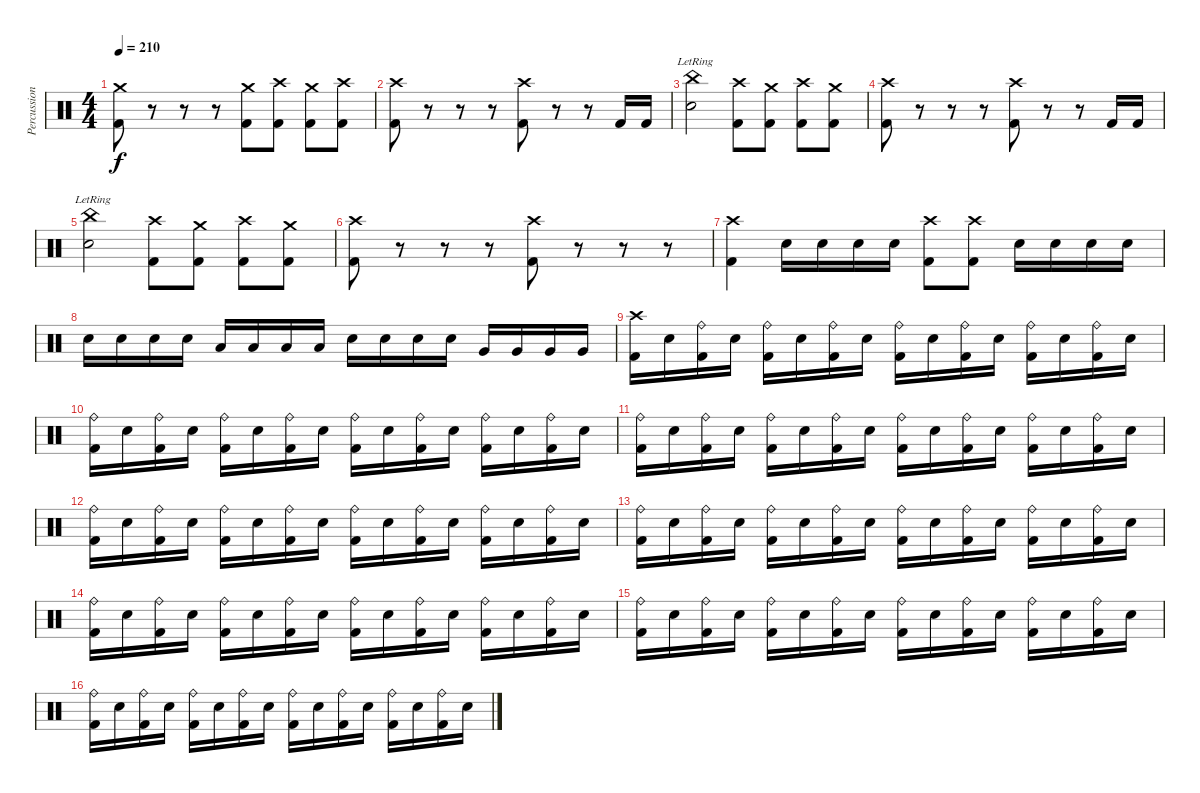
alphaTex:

\track ("Percussion" "Percussion") {instrument percussion}
\staff {score}
\articulation defaults
\ts (4 4)
\tempo 210
\clef neutral
\ks c
("Crash medium (hit)" "Kick (hit) 2").8{dy f} r.8 r.8 r.8 ("Crash medium (hit)" "Kick (hit) 2").8 ("Crash high (hit)" "Kick (hit) 2").8 ("Crash medium (hit)" "Kick (hit) 2").8 ("Crash high (hit)" "Kick (hit) 2").8 |
("Crash high (hit)" "Kick (hit) 2").8 r.8 r.8 r.8 ("Crash high (hit)" "Kick (hit) 2").8 r.8 r.8 "Kick (hit) 2".16 "Kick (hit) 2".16 |
("China (hit)"{lr} "Electric Snare (hit)").2 ("Crash high (hit)" "Kick (hit) 2").8 ("Crash medium (hit)" "Kick (hit) 2").8 ("Crash high (hit)" "Kick (hit) 2").8 ("Crash medium (hit)" "Kick (hit) 2").8 |
("Crash high (hit)" "Kick (hit) 2").8 r.8 r.8 r.8 ("Crash high (hit)" "Kick (hit) 2").8 r.8 r.8 "Kick (hit) 2".16 "Kick (hit) 2".16 |
("China (hit)"{lr} "Electric Snare (hit)").2 ("Crash high (hit)" "Kick (hit) 2").8 ("Crash medium (hit)" "Kick (hit) 2").8 ("Crash high (hit)" "Kick (hit) 2").8 ("Crash medium (hit)" "Kick (hit) 2").8 |
("Crash high (hit)" "Kick (hit) 2").8 r.8 r.8 r.8 ("Crash high (hit)" "Kick (hit) 2").8 r.8 r.8 r.8 |
("Crash high (hit)" "Kick (hit) 2").4 "Electric Snare (hit)".16 "Electric Snare (hit)".16 "Electric Snare (hit)".16 "Electric Snare (hit)".16 ("Crash high (hit)" "Kick (hit) 2").8 ("Crash high (hit)" "Kick (hit) 2").8 "Electric Snare (hit)".16 "Electric Snare (hit)".16 "Electric Snare (hit)".16 "Electric Snare (hit)".16 |
"Electric Snare (hit)".16 "Electric Snare (hit)".16 "Electric Snare (hit)".16 "Electric Snare (hit)".16 "Low Tom (hit)".16 "Low Tom (hit)".16 "Low Tom (hit)".16 "Low Tom (hit)".16 "Electric Snare (hit)".16 "Electric Snare (hit)".16 "Electric Snare (hit)".16 "Electric Snare (hit)".16 "Very Low Tom (hit)".16 "Very Low Tom (hit)".16 "Very Low Tom (hit)".16 "Very Low Tom (hit)".16 |
("Crash high (hit)" "Kick (hit) 2").16 "Electric Snare (hit)".16 ("Ride (bell)" "Kick (hit) 2").16 "Electric Snare (hit)".16 ("Ride (bell)" "Kick (hit) 2").16 "Electric Snare (hit)".16 ("Ride (bell)" "Kick (hit) 2").16 "Electric Snare (hit)".16 ("Ride (bell)" "Kick (hit) 2").16 "Electric Snare (hit)".16 ("Ride (bell)" "Kick (hit) 2").16 "Electric Snare (hit)".16 ("Ride (bell)" "Kick (hit) 2").16 "Electric Snare (hit)".16 ("Ride (bell)" "Kick (hit) 2").16 "Electric Snare (hit)".16 |
("Ride (bell)" "Kick (hit) 2").16 "Electric Snare (hit)".16 ("Ride (bell)" "Kick (hit) 2").16 "Electric Snare (hit)".16 ("Ride (bell)" "Kick (hit) 2").16 "Electric Snare (hit)".16 ("Ride (bell)" "Kick (hit) 2").16 "Electric Snare (hit)".16 ("Ride (bell)" "Kick (hit) 2").16 "Electric Snare (hit)".16 ("Ride (bell)" "Kick (hit) 2").16 "Electric Snare (hit)".16 ("Ride (bell)" "Kick (hit) 2").16 "Electric Snare (hit)".16 ("Ride (bell)" "Kick (hit) 2").16 "Electric Snare (hit)".16 |
("Ride (bell)" "Kick (hit) 2").16 "Electric Snare (hit)".16 ("Ride (bell)" "Kick (hit) 2").16 "Electric Snare (hit)".16 ("Ride (bell)" "Kick (hit) 2").16 "Electric Snare (hit)".16 ("Ride (bell)" "Kick (hit) 2").16 "Electric Snare (hit)".16 ("Ride (bell)" "Kick (hit) 2").16 "Electric Snare (hit)".16 ("Ride (bell)" "Kick (hit) 2").16 "Electric Snare (hit)".16 ("Ride (bell)" "Kick (hit) 2").16 "Electric Snare (hit)".16 ("Ride (bell)" "Kick (hit) 2").16 "Electric Snare (hit)".16 |
("Ride (bell)" "Kick (hit) 2").16 "Electric Snare (hit)".16 ("Ride (bell)" "Kick (hit) 2").16 "Electric Snare (hit)".16 ("Ride (bell)" "Kick (hit) 2").16 "Electric Snare (hit)".16 ("Ride (bell)" "Kick (hit) 2").16 "Electric Snare (hit)".16 ("Ride (bell)" "Kick (hit) 2").16 "Electric Snare (hit)".16 ("Ride (bell)" "Kick (hit) 2").16 "Electric Snare (hit)".16 ("Ride (bell)" "Kick (hit) 2").16 "Electric Snare (hit)".16 ("Ride (bell)" "Kick (hit) 2").16 "Electric Snare (hit)".16 |
("Ride (bell)" "Kick (hit) 2").16 "Electric Snare (hit)".16 ("Ride (bell)" "Kick (hit) 2").16 "Electric Snare (hit)".16 ("Ride (bell)" "Kick (hit) 2").16 "Electric Snare (hit)".16 ("Ride (bell)" "Kick (hit) 2").16 "Electric Snare (hit)".16 ("Ride (bell)" "Kick (hit) 2").16 "Electric Snare (hit)".16 ("Ride (bell)" "Kick (hit) 2").16 "Electric Snare (hit)".16 ("Ride (bell)" "Kick (hit) 2").16 "Electric Snare (hit)".16 ("Ride (bell)" "Kick (hit) 2").16 "Electric Snare (hit)".16 |
("Ride (bell)" "Kick (hit) 2").16 "Electric Snare (hit)".16 ("Ride (bell)" "Kick (hit) 2").16 "Electric Snare (hit)".16 ("Ride (bell)" "Kick (hit) 2").16 "Electric Snare (hit)".16 ("Ride (bell)" "Kick (hit) 2").16 "Electric Snare (hit)".16 ("Ride (bell)" "Kick (hit) 2").16 "Electric Snare (hit)".16 ("Ride (bell)" "Kick (hit) 2").16 "Electric Snare (hit)".16 ("Ride (bell)" "Kick (hit) 2").16 "Electric Snare (hit)".16 ("Ride (bell)" "Kick (hit) 2").16 "Electric Snare (hit)".16 |
("Ride (bell)" "Kick (hit) 2").16 "Electric Snare (hit)".16 ("Ride (bell)" "Kick (hit) 2").16 "Electric Snare (hit)".16 ("Ride (bell)" "Kick (hit) 2").16 "Electric Snare (hit)".16 ("Ride (bell)" "Kick (hit) 2").16 "Electric Snare (hit)".16 ("Ride (bell)" "Kick (hit) 2").16 "Electric Snare (hit)".16 ("Ride (bell)" "Kick (hit) 2").16 "Electric Snare (hit)".16 ("Ride (bell)" "Kick (hit) 2").16 "Electric Snare (hit)".16 ("Ride (bell)" "Kick (hit) 2").16 "Electric Snare (hit)".16 |
("Ride (bell)" "Kick (hit) 2").16 "Electric Snare (hit)".16 ("Ride (bell)" "Kick (hit) 2").16 "Electric Snare (hit)".16 ("Ride (bell)" "Kick (hit) 2").16 "Electric Snare (hit)".16 ("Ride (bell)" "Kick (hit) 2").16 "Electric Snare (hit)".16 ("Ride (bell)" "Kick (hit) 2").16 "Electric Snare (hit)".16 ("Ride (bell)" "Kick (hit) 2").16 "Electric Snare (hit)".16 ("Ride (bell)" "Kick (hit) 2").16 "Electric Snare (hit)".16 ("Ride (bell)" "Kick (hit) 2").16 "Electric Snare (hit)".16
